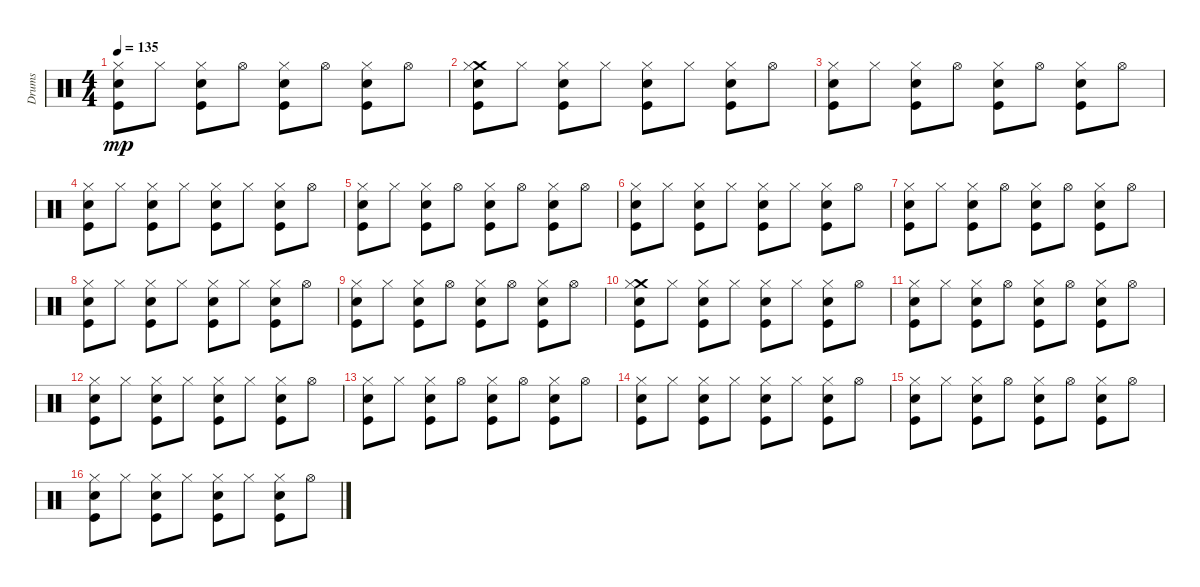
\track ("Drums   " "Drums   ") {instrument percussion}
\staff {score}
\articulation defaults
\ts (4 4)
\tempo 135
\clef neutral
\ks c
("Snare (hit) 2" "Hi-Hat (closed)" "Kick (hit)").8{dy mp} "Hi-Hat (closed)".8 ("Snare (hit) 2" "Hi-Hat (closed)" "Kick (hit)").8 "Hi-Hat (open)".8 ("Snare (hit) 2" "Hi-Hat (closed)" "Kick (hit)").8 "Hi-Hat (open)".8 ("Snare (hit) 2" "Hi-Hat (closed)" "Kick (hit)").8 "Hi-Hat (open)".8 |
("Crash medium (hit)" "Snare (hit) 2" "Hi-Hat (closed)" "Kick (hit)").8 "Hi-Hat (closed)".8 ("Snare (hit) 2" "Hi-Hat (closed)" "Kick (hit)").8 "Hi-Hat (closed)".8 ("Snare (hit) 2" "Hi-Hat (closed)" "Kick (hit)").8 "Hi-Hat (closed)".8 ("Snare (hit) 2" "Hi-Hat (closed)" "Kick (hit)").8 "Hi-Hat (open)".8 |
("Snare (hit) 2" "Hi-Hat (closed)" "Kick (hit)").8 "Hi-Hat (closed)".8 ("Snare (hit) 2" "Hi-Hat (closed)" "Kick (hit)").8 "Hi-Hat (open)".8 ("Snare (hit) 2" "Hi-Hat (closed)" "Kick (hit)").8 "Hi-Hat (open)".8 ("Snare (hit) 2" "Hi-Hat (closed)" "Kick (hit)").8 "Hi-Hat (open)".8 |
("Snare (hit) 2" "Hi-Hat (closed)" "Kick (hit)").8 "Hi-Hat (closed)".8 ("Snare (hit) 2" "Hi-Hat (closed)" "Kick (hit)").8 "Hi-Hat (closed)".8 ("Snare (hit) 2" "Hi-Hat (closed)" "Kick (hit)").8 "Hi-Hat (closed)".8 ("Snare (hit) 2" "Hi-Hat (closed)" "Kick (hit)").8 "Hi-Hat (open)".8 |
("Snare (hit) 2" "Hi-Hat (closed)" "Kick (hit)").8 "Hi-Hat (closed)".8 ("Snare (hit) 2" "Hi-Hat (closed)" "Kick (hit)").8 "Hi-Hat (open)".8 ("Snare (hit) 2" "Hi-Hat (closed)" "Kick (hit)").8 "Hi-Hat (open)".8 ("Snare (hit) 2" "Hi-Hat (closed)" "Kick (hit)").8 "Hi-Hat (open)".8 |
("Snare (hit) 2" "Hi-Hat (closed)" "Kick (hit)").8 "Hi-Hat (closed)".8 ("Snare (hit) 2" "Hi-Hat (closed)" "Kick (hit)").8 "Hi-Hat (closed)".8 ("Snare (hit) 2" "Hi-Hat (closed)" "Kick (hit)").8 "Hi-Hat (closed)".8 ("Snare (hit) 2" "Hi-Hat (closed)" "Kick (hit)").8 "Hi-Hat (open)".8 |
("Snare (hit) 2" "Hi-Hat (closed)" "Kick (hit)").8 "Hi-Hat (closed)".8 ("Snare (hit) 2" "Hi-Hat (closed)" "Kick (hit)").8 "Hi-Hat (open)".8 ("Snare (hit) 2" "Hi-Hat (closed)" "Kick (hit)").8 "Hi-Hat (open)".8 ("Snare (hit) 2" "Hi-Hat (closed)" "Kick (hit)").8 "Hi-Hat (open)".8 |
("Snare (hit) 2" "Hi-Hat (closed)" "Kick (hit)").8 "Hi-Hat (closed)".8 ("Snare (hit) 2" "Hi-Hat (closed)" "Kick (hit)").8 "Hi-Hat (closed)".8 ("Snare (hit) 2" "Hi-Hat (closed)" "Kick (hit)").8 "Hi-Hat (closed)".8 ("Snare (hit) 2" "Hi-Hat (closed)" "Kick (hit)").8 "Hi-Hat (open)".8 |
("Snare (hit) 2" "Hi-Hat (closed)" "Kick (hit)").8 "Hi-Hat (closed)".8 ("Snare (hit) 2" "Hi-Hat (closed)" "Kick (hit)").8 "Hi-Hat (open)".8 ("Snare (hit) 2" "Hi-Hat (closed)" "Kick (hit)").8 "Hi-Hat (open)".8 ("Snare (hit) 2" "Hi-Hat (closed)" "Kick (hit)").8 "Hi-Hat (open)".8 |
("Crash medium (hit)" "Snare (hit) 2" "Hi-Hat (closed)" "Kick (hit)").8 "Hi-Hat (closed)".8 ("Snare (hit) 2" "Hi-Hat (closed)" "Kick (hit)").8 "Hi-Hat (closed)".8 ("Snare (hit) 2" "Hi-Hat (closed)" "Kick (hit)").8 "Hi-Hat (closed)".8 ("Snare (hit) 2" "Hi-Hat (closed)" "Kick (hit)").8 "Hi-Hat (open)".8 |
("Snare (hit) 2" "Hi-Hat (closed)" "Kick (hit)").8 "Hi-Hat (closed)".8 ("Snare (hit) 2" "Hi-Hat (closed)" "Kick (hit)").8 "Hi-Hat (open)".8 ("Snare (hit) 2" "Hi-Hat (closed)" "Kick (hit)").8 "Hi-Hat (open)".8 ("Snare (hit) 2" "Hi-Hat (closed)" "Kick (hit)").8 "Hi-Hat (open)".8 |
("Snare (hit) 2" "Hi-Hat (closed)" "Kick (hit)").8 "Hi-Hat (closed)".8 ("Snare (hit) 2" "Hi-Hat (closed)" "Kick (hit)").8 "Hi-Hat (closed)".8 ("Snare (hit) 2" "Hi-Hat (closed)" "Kick (hit)").8 "Hi-Hat (closed)".8 ("Snare (hit) 2" "Hi-Hat (closed)" "Kick (hit)").8 "Hi-Hat (open)".8 |
("Snare (hit) 2" "Hi-Hat (closed)" "Kick (hit)").8 "Hi-Hat (closed)".8 ("Snare (hit) 2" "Hi-Hat (closed)" "Kick (hit)").8 "Hi-Hat (open)".8 ("Snare (hit) 2" "Hi-Hat (closed)" "Kick (hit)").8 "Hi-Hat (open)".8 ("Snare (hit) 2" "Hi-Hat (closed)" "Kick (hit)").8 "Hi-Hat (open)".8 |
("Snare (hit) 2" "Hi-Hat (closed)" "Kick (hit)").8 "Hi-Hat (closed)".8 ("Snare (hit) 2" "Hi-Hat (closed)" "Kick (hit)").8 "Hi-Hat (closed)".8 ("Snare (hit) 2" "Hi-Hat (closed)" "Kick (hit)").8 "Hi-Hat (closed)".8 ("Snare (hit) 2" "Hi-Hat (closed)" "Kick (hit)").8 "Hi-Hat (open)".8 |
("Snare (hit) 2" "Hi-Hat (closed)" "Kick (hit)").8 "Hi-Hat (closed)".8 ("Snare (hit) 2" "Hi-Hat (closed)" "Kick (hit)").8 "Hi-Hat (open)".8 ("Snare (hit) 2" "Hi-Hat (closed)" "Kick (hit)").8 "Hi-Hat (open)".8 ("Snare (hit) 2" "Hi-Hat (closed)" "Kick (hit)").8 "Hi-Hat (open)".8 |
("Snare (hit) 2" "Hi-Hat (closed)" "Kick (hit)").8 "Hi-Hat (closed)".8 ("Snare (hit) 2" "Hi-Hat (closed)" "Kick (hit)").8 "Hi-Hat (closed)".8 ("Snare (hit) 2" "Hi-Hat (closed)" "Kick (hit)").8 "Hi-Hat (closed)".8 ("Snare (hit) 2" "Hi-Hat (closed)" "Kick (hit)").8 "Hi-Hat (open)".8
